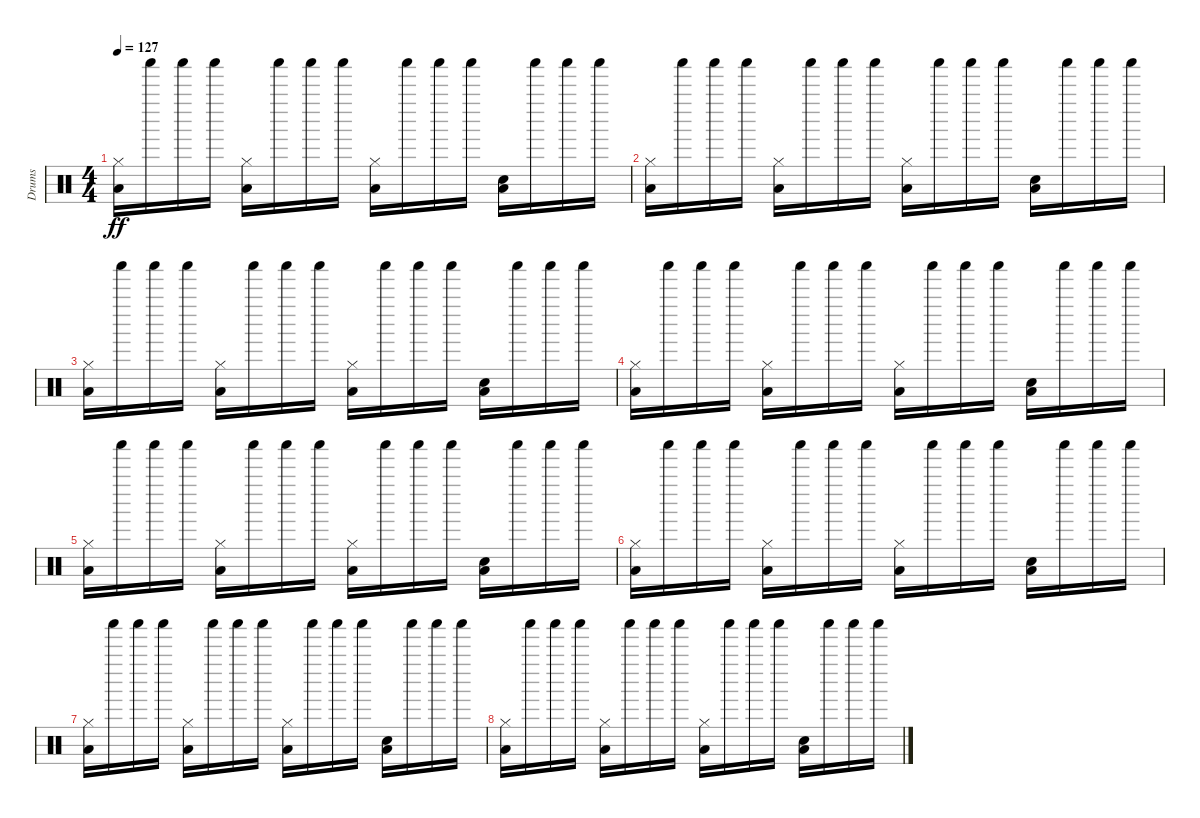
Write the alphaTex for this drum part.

\track ("Drums" "Drums") {instrument percussion}
\staff {score}
\articulation defaults
\ts (4 4)
\tempo 127
\clef neutral
\ks c
("Hi-Hat (closed)" "Low Tom (hit)").16{dy ff} "Shaker (hit)".16 "Shaker (hit)".16 "Shaker (hit)".16 ("Hi-Hat (closed)" "Low Tom (hit)").16 "Shaker (hit)".16 "Shaker (hit)".16 "Shaker (hit)".16 ("Hi-Hat (closed)" "Low Tom (hit)").16 "Shaker (hit)".16 "Shaker (hit)".16 "Shaker (hit)".16 ("Hand Clap (hit)" "Low Tom (hit)").16 "Shaker (hit)".16 "Shaker (hit)".16 "Shaker (hit)".16 |
("Hi-Hat (closed)" "Low Tom (hit)").16 "Shaker (hit)".16 "Shaker (hit)".16 "Shaker (hit)".16 ("Hi-Hat (closed)" "Low Tom (hit)").16 "Shaker (hit)".16 "Shaker (hit)".16 "Shaker (hit)".16 ("Hi-Hat (closed)" "Low Tom (hit)").16 "Shaker (hit)".16 "Shaker (hit)".16 "Shaker (hit)".16 ("Hand Clap (hit)" "Low Tom (hit)").16 "Shaker (hit)".16 "Shaker (hit)".16 "Shaker (hit)".16 |
("Hi-Hat (closed)" "Low Tom (hit)").16 "Shaker (hit)".16 "Shaker (hit)".16 "Shaker (hit)".16 ("Hi-Hat (closed)" "Low Tom (hit)").16 "Shaker (hit)".16 "Shaker (hit)".16 "Shaker (hit)".16 ("Hi-Hat (closed)" "Low Tom (hit)").16 "Shaker (hit)".16 "Shaker (hit)".16 "Shaker (hit)".16 ("Hand Clap (hit)" "Low Tom (hit)").16 "Shaker (hit)".16 "Shaker (hit)".16 "Shaker (hit)".16 |
("Hi-Hat (closed)" "Low Tom (hit)").16 "Shaker (hit)".16 "Shaker (hit)".16 "Shaker (hit)".16 ("Hi-Hat (closed)" "Low Tom (hit)").16 "Shaker (hit)".16 "Shaker (hit)".16 "Shaker (hit)".16 ("Hi-Hat (closed)" "Low Tom (hit)").16 "Shaker (hit)".16 "Shaker (hit)".16 "Shaker (hit)".16 ("Hand Clap (hit)" "Low Tom (hit)").16 "Shaker (hit)".16 "Shaker (hit)".16 "Shaker (hit)".16 |
("Hi-Hat (closed)" "Low Tom (hit)").16 "Shaker (hit)".16 "Shaker (hit)".16 "Shaker (hit)".16 ("Hi-Hat (closed)" "Low Tom (hit)").16 "Shaker (hit)".16 "Shaker (hit)".16 "Shaker (hit)".16 ("Hi-Hat (closed)" "Low Tom (hit)").16 "Shaker (hit)".16 "Shaker (hit)".16 "Shaker (hit)".16 ("Hand Clap (hit)" "Low Tom (hit)").16 "Shaker (hit)".16 "Shaker (hit)".16 "Shaker (hit)".16 |
("Hi-Hat (closed)" "Low Tom (hit)").16 "Shaker (hit)".16 "Shaker (hit)".16 "Shaker (hit)".16 ("Hi-Hat (closed)" "Low Tom (hit)").16 "Shaker (hit)".16 "Shaker (hit)".16 "Shaker (hit)".16 ("Hi-Hat (closed)" "Low Tom (hit)").16 "Shaker (hit)".16 "Shaker (hit)".16 "Shaker (hit)".16 ("Hand Clap (hit)" "Low Tom (hit)").16 "Shaker (hit)".16 "Shaker (hit)".16 "Shaker (hit)".16 |
("Hi-Hat (closed)" "Low Tom (hit)").16 "Shaker (hit)".16 "Shaker (hit)".16 "Shaker (hit)".16 ("Hi-Hat (closed)" "Low Tom (hit)").16 "Shaker (hit)".16 "Shaker (hit)".16 "Shaker (hit)".16 ("Hi-Hat (closed)" "Low Tom (hit)").16 "Shaker (hit)".16 "Shaker (hit)".16 "Shaker (hit)".16 ("Hand Clap (hit)" "Low Tom (hit)").16 "Shaker (hit)".16 "Shaker (hit)".16 "Shaker (hit)".16 |
("Hi-Hat (closed)" "Low Tom (hit)").16 "Shaker (hit)".16 "Shaker (hit)".16 "Shaker (hit)".16 ("Hi-Hat (closed)" "Low Tom (hit)").16 "Shaker (hit)".16 "Shaker (hit)".16 "Shaker (hit)".16 ("Hi-Hat (closed)" "Low Tom (hit)").16 "Shaker (hit)".16 "Shaker (hit)".16 "Shaker (hit)".16 ("Hand Clap (hit)" "Low Tom (hit)").16 "Shaker (hit)".16 "Shaker (hit)".16 "Shaker (hit)".16
